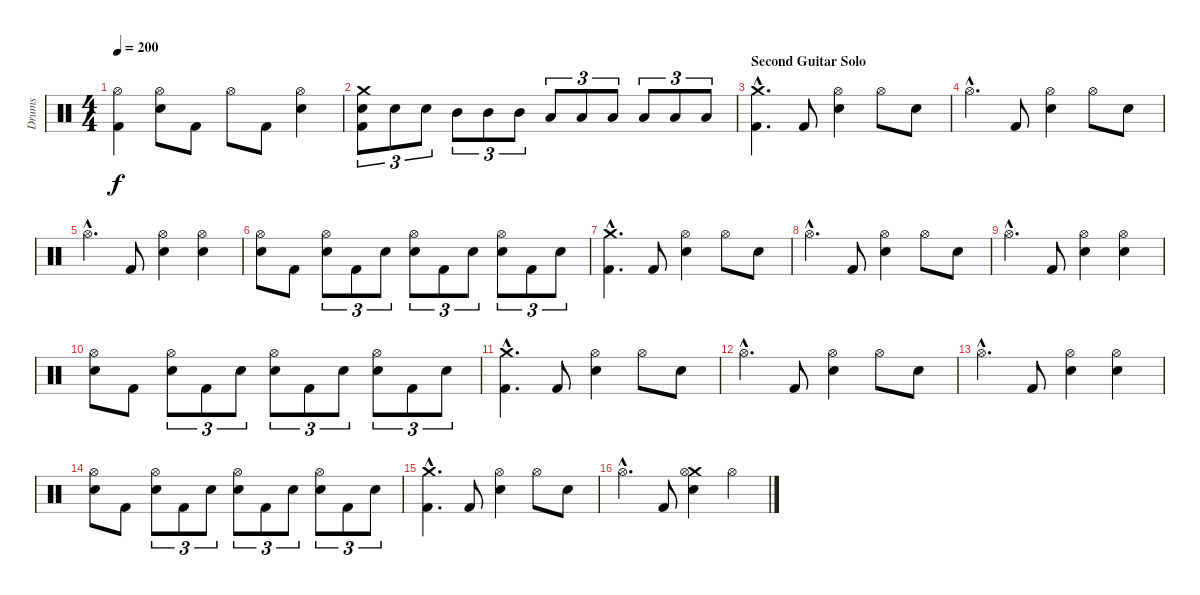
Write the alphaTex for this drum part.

\track ("Drums" "Drums") {instrument percussion}
\staff {score}
\articulation defaults
\ts (4 4)
\tempo 200
\clef neutral
\ks c
("Hi-Hat (open)" "Kick (hit) 2").4{dy f} ("Hi-Hat (open)" "Snare (hit) 2").8 "Kick (hit) 2".8 "Hi-Hat (open)".8 "Kick (hit) 2".8 ("Hi-Hat (open)" "Snare (hit) 2").4 |
("Crash medium (hit)" "Snare (hit) 2" "Kick (hit) 2").8{tu (3 2)} "Snare (hit) 2".8{tu (3 2)} "Snare (hit) 2".8{tu (3 2)} "Mid Tom (hit)".8{tu (3 2)} "Mid Tom (hit)".8{tu (3 2)} "Mid Tom (hit)".8{tu (3 2)} "Low Tom (hit)".8{tu (3 2)} "Low Tom (hit)".8{tu (3 2)} "Low Tom (hit)".8{tu (3 2)} "Low Floor Tom (hit)".8{tu (3 2)} "Low Floor Tom (hit)".8{tu (3 2)} "Low Floor Tom (hit)".8{tu (3 2)} |
\section ("" "Second Guitar Solo")
("Crash medium (hit)"{hac} "Kick (hit) 2"{hac}).4{d} "Kick (hit) 2".8 ("Hi-Hat (open)" "Electric Snare (hit)").4 "Hi-Hat (open)".8 "Electric Snare (hit)".8 |
"Hi-Hat (open)"{hac}.4{d} "Kick (hit) 2".8 ("Hi-Hat (open)" "Electric Snare (hit)").4 "Hi-Hat (open)".8 "Electric Snare (hit)".8 |
"Hi-Hat (open)"{hac}.4{d} "Kick (hit) 2".8 ("Hi-Hat (open)" "Electric Snare (hit)").4 ("Hi-Hat (open)" "Electric Snare (hit)").4 |
("Hi-Hat (open)" "Electric Snare (hit)").8 "Kick (hit) 2".8 ("Hi-Hat (open)" "Electric Snare (hit)").8{tu (3 2)} "Kick (hit) 2".8{tu (3 2)} "Electric Snare (hit)".8{tu (3 2)} ("Hi-Hat (open)" "Electric Snare (hit)").8{tu (3 2)} "Kick (hit) 2".8{tu (3 2)} "Electric Snare (hit)".8{tu (3 2)} ("Hi-Hat (open)" "Electric Snare (hit)").8{tu (3 2)} "Kick (hit) 2".8{tu (3 2)} "Electric Snare (hit)".8{tu (3 2)} |
("Crash medium (hit)"{hac} "Kick (hit) 2"{hac}).4{d} "Kick (hit) 2".8 ("Hi-Hat (open)" "Electric Snare (hit)").4 "Hi-Hat (open)".8 "Electric Snare (hit)".8 |
"Hi-Hat (open)"{hac}.4{d} "Kick (hit) 2".8 ("Hi-Hat (open)" "Electric Snare (hit)").4 "Hi-Hat (open)".8 "Electric Snare (hit)".8 |
"Hi-Hat (open)"{hac}.4{d} "Kick (hit) 2".8 ("Hi-Hat (open)" "Electric Snare (hit)").4 ("Hi-Hat (open)" "Electric Snare (hit)").4 |
("Hi-Hat (open)" "Electric Snare (hit)").8 "Kick (hit) 2".8 ("Hi-Hat (open)" "Electric Snare (hit)").8{tu (3 2)} "Kick (hit) 2".8{tu (3 2)} "Electric Snare (hit)".8{tu (3 2)} ("Hi-Hat (open)" "Electric Snare (hit)").8{tu (3 2)} "Kick (hit) 2".8{tu (3 2)} "Electric Snare (hit)".8{tu (3 2)} ("Hi-Hat (open)" "Electric Snare (hit)").8{tu (3 2)} "Kick (hit) 2".8{tu (3 2)} "Electric Snare (hit)".8{tu (3 2)} |
("Crash medium (hit)"{hac} "Kick (hit) 2"{hac}).4{d} "Kick (hit) 2".8 ("Hi-Hat (open)" "Electric Snare (hit)").4 "Hi-Hat (open)".8 "Electric Snare (hit)".8 |
"Hi-Hat (open)"{hac}.4{d} "Kick (hit) 2".8 ("Hi-Hat (open)" "Electric Snare (hit)").4 "Hi-Hat (open)".8 "Electric Snare (hit)".8 |
"Hi-Hat (open)"{hac}.4{d} "Kick (hit) 2".8 ("Hi-Hat (open)" "Electric Snare (hit)").4 ("Hi-Hat (open)" "Electric Snare (hit)").4 |
("Hi-Hat (open)" "Electric Snare (hit)").8 "Kick (hit) 2".8 ("Hi-Hat (open)" "Electric Snare (hit)").8{tu (3 2)} "Kick (hit) 2".8{tu (3 2)} "Electric Snare (hit)".8{tu (3 2)} ("Hi-Hat (open)" "Electric Snare (hit)").8{tu (3 2)} "Kick (hit) 2".8{tu (3 2)} "Electric Snare (hit)".8{tu (3 2)} ("Hi-Hat (open)" "Electric Snare (hit)").8{tu (3 2)} "Kick (hit) 2".8{tu (3 2)} "Electric Snare (hit)".8{tu (3 2)} |
("Crash medium (hit)"{hac} "Kick (hit) 2"{hac}).4{d} "Kick (hit) 2".8 ("Hi-Hat (open)" "Electric Snare (hit)").4 "Hi-Hat (open)".8 "Electric Snare (hit)".8 |
"Hi-Hat (open)"{hac}.4{d} "Kick (hit) 2".8 ("Crash medium (hit)" "Hi-Hat (open)" "Electric Snare (hit)").4 "Hi-Hat (open)".4
